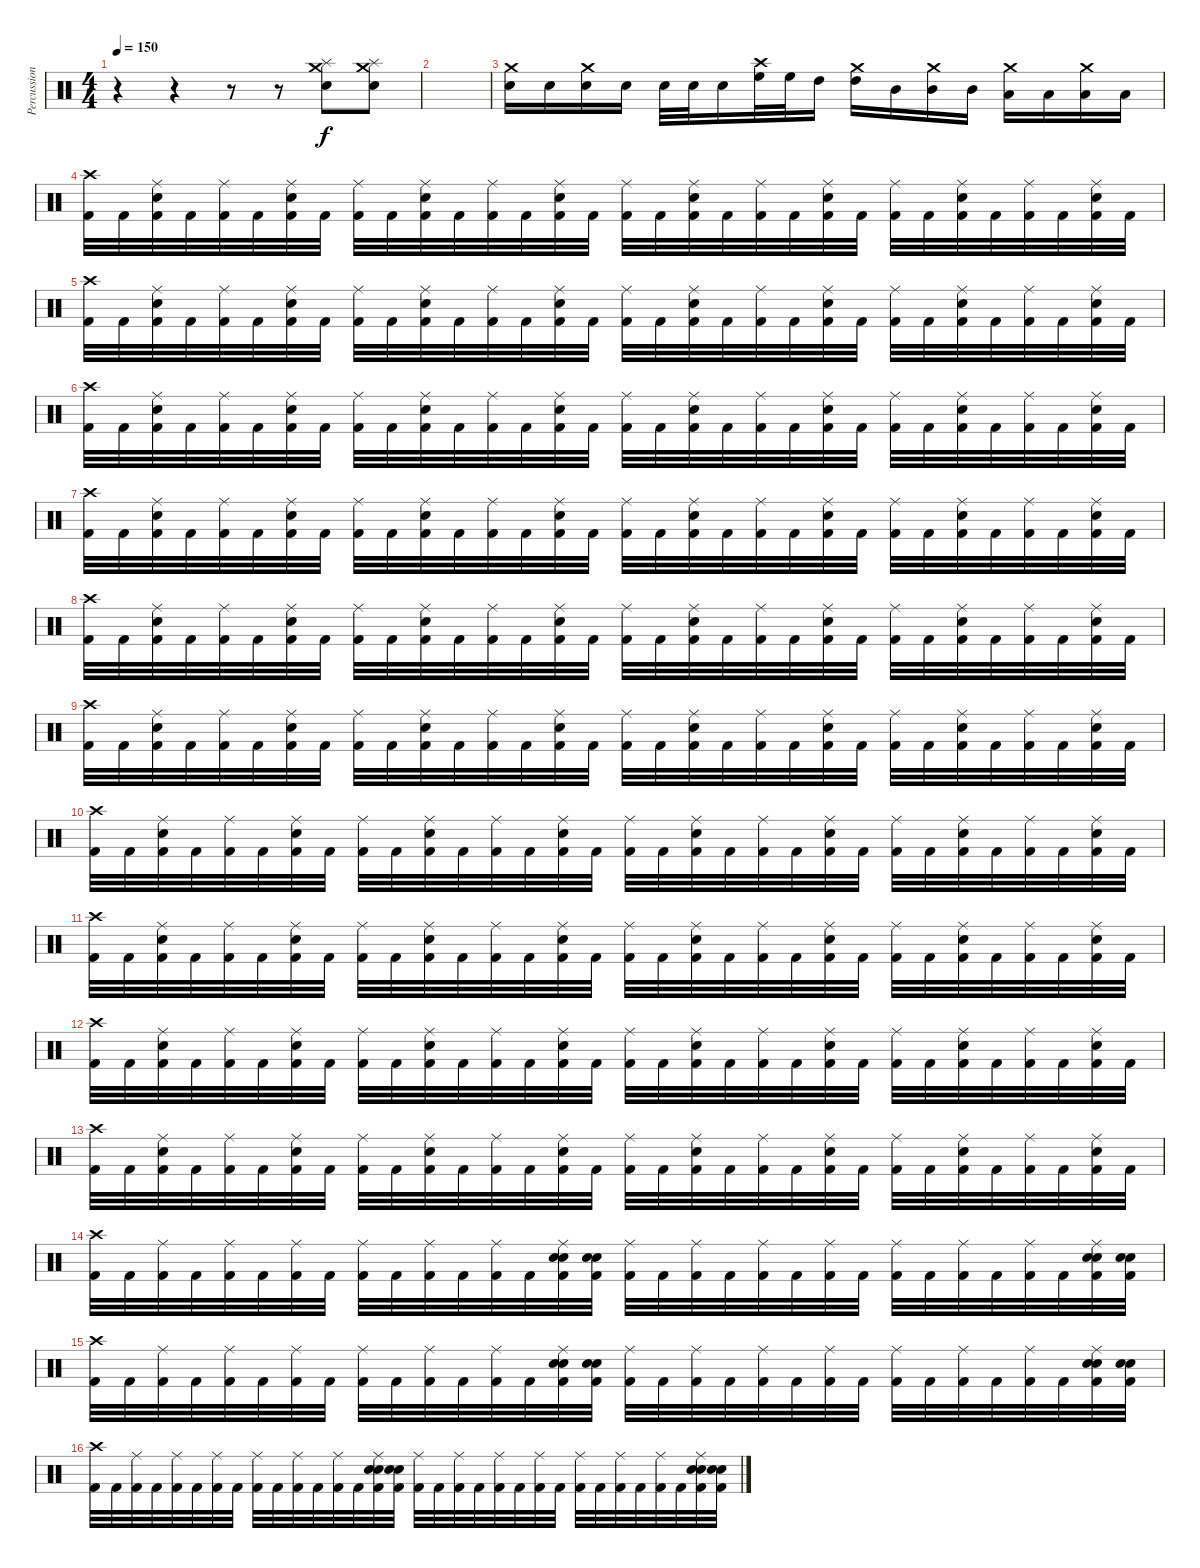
\track ("Percussions" "Percussion") {instrument percussion}
\staff {score}
\articulation defaults
\ts (4 4)
\tempo 150
\clef neutral
\ks c
r.4{dy f} r.4 r.8 r.8 ("Splash (hit)" "Crash medium (hit)" "Electric Snare (hit)").8 ("Splash (hit)" "Crash medium (hit)" "Electric Snare (hit)").8 |
|
("Electric Snare (hit)" "Crash medium (hit)").16 "Electric Snare (hit)".16 ("Electric Snare (hit)" "Crash medium (hit)").16 "Electric Snare (hit)".16 "Electric Snare (hit)".32 "Electric Snare (hit)".32 "Electric Snare (hit)".16 ("High Floor Tom (hit)" "Crash high (hit)").32 "High Floor Tom (hit)".32 "High Tom (hit)".16 ("High Tom (hit)" "Crash medium (hit)").16 "Mid Tom (hit)".16 ("Mid Tom (hit)" "Crash medium (hit)").16 "Mid Tom (hit)".16 ("Low Tom (hit)" "Crash medium (hit)").16 "Low Tom (hit)".16 ("Low Tom (hit)" "Crash medium (hit)").16 "Low Tom (hit)".16 |
("Crash high (hit)" "Kick (hit) 2").32 "Kick (hit) 2".32 ("Ride (middle)" "Electric Snare (hit)" "Kick (hit) 2").32 "Kick (hit) 2".32 ("Ride (middle)" "Kick (hit) 2").32 "Kick (hit) 2".32 ("Ride (middle)" "Electric Snare (hit)" "Kick (hit) 2").32 "Kick (hit) 2".32 ("Ride (middle)" "Kick (hit) 2").32 "Kick (hit) 2".32 ("Ride (middle)" "Electric Snare (hit)" "Kick (hit) 2").32 "Kick (hit) 2".32 ("Ride (middle)" "Kick (hit) 2").32 "Kick (hit) 2".32 ("Ride (middle)" "Electric Snare (hit)" "Kick (hit) 2").32 "Kick (hit) 2".32 ("Ride (middle)" "Kick (hit) 2").32 "Kick (hit) 2".32 ("Ride (middle)" "Electric Snare (hit)" "Kick (hit) 2").32 "Kick (hit) 2".32 ("Ride (middle)" "Kick (hit) 2").32 "Kick (hit) 2".32 ("Ride (middle)" "Electric Snare (hit)" "Kick (hit) 2").32 "Kick (hit) 2".32 ("Ride (middle)" "Kick (hit) 2").32 "Kick (hit) 2".32 ("Ride (middle)" "Electric Snare (hit)" "Kick (hit) 2").32 "Kick (hit) 2".32 ("Ride (middle)" "Kick (hit) 2").32 "Kick (hit) 2".32 ("Ride (middle)" "Electric Snare (hit)" "Kick (hit) 2").32 "Kick (hit) 2".32 |
("Crash high (hit)" "Kick (hit) 2").32 "Kick (hit) 2".32 ("Ride (middle)" "Electric Snare (hit)" "Kick (hit) 2").32 "Kick (hit) 2".32 ("Ride (middle)" "Kick (hit) 2").32 "Kick (hit) 2".32 ("Ride (middle)" "Electric Snare (hit)" "Kick (hit) 2").32 "Kick (hit) 2".32 ("Ride (middle)" "Kick (hit) 2").32 "Kick (hit) 2".32 ("Ride (middle)" "Electric Snare (hit)" "Kick (hit) 2").32 "Kick (hit) 2".32 ("Ride (middle)" "Kick (hit) 2").32 "Kick (hit) 2".32 ("Ride (middle)" "Electric Snare (hit)" "Kick (hit) 2").32 "Kick (hit) 2".32 ("Ride (middle)" "Kick (hit) 2").32 "Kick (hit) 2".32 ("Ride (middle)" "Electric Snare (hit)" "Kick (hit) 2").32 "Kick (hit) 2".32 ("Ride (middle)" "Kick (hit) 2").32 "Kick (hit) 2".32 ("Ride (middle)" "Electric Snare (hit)" "Kick (hit) 2").32 "Kick (hit) 2".32 ("Ride (middle)" "Kick (hit) 2").32 "Kick (hit) 2".32 ("Ride (middle)" "Electric Snare (hit)" "Kick (hit) 2").32 "Kick (hit) 2".32 ("Ride (middle)" "Kick (hit) 2").32 "Kick (hit) 2".32 ("Ride (middle)" "Electric Snare (hit)" "Kick (hit) 2").32 "Kick (hit) 2".32 |
("Crash high (hit)" "Kick (hit) 2").32 "Kick (hit) 2".32 ("Ride (middle)" "Electric Snare (hit)" "Kick (hit) 2").32 "Kick (hit) 2".32 ("Ride (middle)" "Kick (hit) 2").32 "Kick (hit) 2".32 ("Ride (middle)" "Electric Snare (hit)" "Kick (hit) 2").32 "Kick (hit) 2".32 ("Ride (middle)" "Kick (hit) 2").32 "Kick (hit) 2".32 ("Ride (middle)" "Electric Snare (hit)" "Kick (hit) 2").32 "Kick (hit) 2".32 ("Ride (middle)" "Kick (hit) 2").32 "Kick (hit) 2".32 ("Ride (middle)" "Electric Snare (hit)" "Kick (hit) 2").32 "Kick (hit) 2".32 ("Ride (middle)" "Kick (hit) 2").32 "Kick (hit) 2".32 ("Ride (middle)" "Electric Snare (hit)" "Kick (hit) 2").32 "Kick (hit) 2".32 ("Ride (middle)" "Kick (hit) 2").32 "Kick (hit) 2".32 ("Ride (middle)" "Electric Snare (hit)" "Kick (hit) 2").32 "Kick (hit) 2".32 ("Ride (middle)" "Kick (hit) 2").32 "Kick (hit) 2".32 ("Ride (middle)" "Electric Snare (hit)" "Kick (hit) 2").32 "Kick (hit) 2".32 ("Ride (middle)" "Kick (hit) 2").32 "Kick (hit) 2".32 ("Ride (middle)" "Electric Snare (hit)" "Kick (hit) 2").32 "Kick (hit) 2".32 |
("Crash high (hit)" "Kick (hit) 2").32 "Kick (hit) 2".32 ("Ride (middle)" "Electric Snare (hit)" "Kick (hit) 2").32 "Kick (hit) 2".32 ("Ride (middle)" "Kick (hit) 2").32 "Kick (hit) 2".32 ("Ride (middle)" "Electric Snare (hit)" "Kick (hit) 2").32 "Kick (hit) 2".32 ("Ride (middle)" "Kick (hit) 2").32 "Kick (hit) 2".32 ("Ride (middle)" "Electric Snare (hit)" "Kick (hit) 2").32 "Kick (hit) 2".32 ("Ride (middle)" "Kick (hit) 2").32 "Kick (hit) 2".32 ("Ride (middle)" "Electric Snare (hit)" "Kick (hit) 2").32 "Kick (hit) 2".32 ("Ride (middle)" "Kick (hit) 2").32 "Kick (hit) 2".32 ("Ride (middle)" "Electric Snare (hit)" "Kick (hit) 2").32 "Kick (hit) 2".32 ("Ride (middle)" "Kick (hit) 2").32 "Kick (hit) 2".32 ("Ride (middle)" "Electric Snare (hit)" "Kick (hit) 2").32 "Kick (hit) 2".32 ("Ride (middle)" "Kick (hit) 2").32 "Kick (hit) 2".32 ("Ride (middle)" "Electric Snare (hit)" "Kick (hit) 2").32 "Kick (hit) 2".32 ("Ride (middle)" "Kick (hit) 2").32 "Kick (hit) 2".32 ("Ride (middle)" "Electric Snare (hit)" "Kick (hit) 2").32 "Kick (hit) 2".32 |
("Crash high (hit)" "Kick (hit) 2").32 "Kick (hit) 2".32 ("Ride (middle)" "Electric Snare (hit)" "Kick (hit) 2").32 "Kick (hit) 2".32 ("Ride (middle)" "Kick (hit) 2").32 "Kick (hit) 2".32 ("Ride (middle)" "Electric Snare (hit)" "Kick (hit) 2").32 "Kick (hit) 2".32 ("Ride (middle)" "Kick (hit) 2").32 "Kick (hit) 2".32 ("Ride (middle)" "Electric Snare (hit)" "Kick (hit) 2").32 "Kick (hit) 2".32 ("Ride (middle)" "Kick (hit) 2").32 "Kick (hit) 2".32 ("Ride (middle)" "Electric Snare (hit)" "Kick (hit) 2").32 "Kick (hit) 2".32 ("Ride (middle)" "Kick (hit) 2").32 "Kick (hit) 2".32 ("Ride (middle)" "Electric Snare (hit)" "Kick (hit) 2").32 "Kick (hit) 2".32 ("Ride (middle)" "Kick (hit) 2").32 "Kick (hit) 2".32 ("Ride (middle)" "Electric Snare (hit)" "Kick (hit) 2").32 "Kick (hit) 2".32 ("Ride (middle)" "Kick (hit) 2").32 "Kick (hit) 2".32 ("Ride (middle)" "Electric Snare (hit)" "Kick (hit) 2").32 "Kick (hit) 2".32 ("Ride (middle)" "Kick (hit) 2").32 "Kick (hit) 2".32 ("Ride (middle)" "Electric Snare (hit)" "Kick (hit) 2").32 "Kick (hit) 2".32 |
("Crash high (hit)" "Kick (hit) 2").32 "Kick (hit) 2".32 ("Ride (middle)" "Electric Snare (hit)" "Kick (hit) 2").32 "Kick (hit) 2".32 ("Ride (middle)" "Kick (hit) 2").32 "Kick (hit) 2".32 ("Ride (middle)" "Electric Snare (hit)" "Kick (hit) 2").32 "Kick (hit) 2".32 ("Ride (middle)" "Kick (hit) 2").32 "Kick (hit) 2".32 ("Ride (middle)" "Electric Snare (hit)" "Kick (hit) 2").32 "Kick (hit) 2".32 ("Ride (middle)" "Kick (hit) 2").32 "Kick (hit) 2".32 ("Ride (middle)" "Electric Snare (hit)" "Kick (hit) 2").32 "Kick (hit) 2".32 ("Ride (middle)" "Kick (hit) 2").32 "Kick (hit) 2".32 ("Ride (middle)" "Electric Snare (hit)" "Kick (hit) 2").32 "Kick (hit) 2".32 ("Ride (middle)" "Kick (hit) 2").32 "Kick (hit) 2".32 ("Ride (middle)" "Electric Snare (hit)" "Kick (hit) 2").32 "Kick (hit) 2".32 ("Ride (middle)" "Kick (hit) 2").32 "Kick (hit) 2".32 ("Ride (middle)" "Electric Snare (hit)" "Kick (hit) 2").32 "Kick (hit) 2".32 ("Ride (middle)" "Kick (hit) 2").32 "Kick (hit) 2".32 ("Ride (middle)" "Electric Snare (hit)" "Kick (hit) 2").32 "Kick (hit) 2".32 |
("Crash high (hit)" "Kick (hit) 2").32 "Kick (hit) 2".32 ("Ride (middle)" "Electric Snare (hit)" "Kick (hit) 2").32 "Kick (hit) 2".32 ("Ride (middle)" "Kick (hit) 2").32 "Kick (hit) 2".32 ("Ride (middle)" "Electric Snare (hit)" "Kick (hit) 2").32 "Kick (hit) 2".32 ("Ride (middle)" "Kick (hit) 2").32 "Kick (hit) 2".32 ("Ride (middle)" "Electric Snare (hit)" "Kick (hit) 2").32 "Kick (hit) 2".32 ("Ride (middle)" "Kick (hit) 2").32 "Kick (hit) 2".32 ("Ride (middle)" "Electric Snare (hit)" "Kick (hit) 2").32 "Kick (hit) 2".32 ("Ride (middle)" "Kick (hit) 2").32 "Kick (hit) 2".32 ("Ride (middle)" "Electric Snare (hit)" "Kick (hit) 2").32 "Kick (hit) 2".32 ("Ride (middle)" "Kick (hit) 2").32 "Kick (hit) 2".32 ("Ride (middle)" "Electric Snare (hit)" "Kick (hit) 2").32 "Kick (hit) 2".32 ("Ride (middle)" "Kick (hit) 2").32 "Kick (hit) 2".32 ("Ride (middle)" "Electric Snare (hit)" "Kick (hit) 2").32 "Kick (hit) 2".32 ("Ride (middle)" "Kick (hit) 2").32 "Kick (hit) 2".32 ("Ride (middle)" "Electric Snare (hit)" "Kick (hit) 2").32 "Kick (hit) 2".32 |
("Crash high (hit)" "Kick (hit) 2").32 "Kick (hit) 2".32 ("Ride (middle)" "Electric Snare (hit)" "Kick (hit) 2").32 "Kick (hit) 2".32 ("Ride (middle)" "Kick (hit) 2").32 "Kick (hit) 2".32 ("Ride (middle)" "Electric Snare (hit)" "Kick (hit) 2").32 "Kick (hit) 2".32 ("Ride (middle)" "Kick (hit) 2").32 "Kick (hit) 2".32 ("Ride (middle)" "Electric Snare (hit)" "Kick (hit) 2").32 "Kick (hit) 2".32 ("Ride (middle)" "Kick (hit) 2").32 "Kick (hit) 2".32 ("Ride (middle)" "Electric Snare (hit)" "Kick (hit) 2").32 "Kick (hit) 2".32 ("Ride (middle)" "Kick (hit) 2").32 "Kick (hit) 2".32 ("Ride (middle)" "Electric Snare (hit)" "Kick (hit) 2").32 "Kick (hit) 2".32 ("Ride (middle)" "Kick (hit) 2").32 "Kick (hit) 2".32 ("Ride (middle)" "Electric Snare (hit)" "Kick (hit) 2").32 "Kick (hit) 2".32 ("Ride (middle)" "Kick (hit) 2").32 "Kick (hit) 2".32 ("Ride (middle)" "Electric Snare (hit)" "Kick (hit) 2").32 "Kick (hit) 2".32 ("Ride (middle)" "Kick (hit) 2").32 "Kick (hit) 2".32 ("Ride (middle)" "Electric Snare (hit)" "Kick (hit) 2").32 "Kick (hit) 2".32 |
("Crash high (hit)" "Kick (hit) 2").32 "Kick (hit) 2".32 ("Ride (middle)" "Electric Snare (hit)" "Kick (hit) 2").32 "Kick (hit) 2".32 ("Ride (middle)" "Kick (hit) 2").32 "Kick (hit) 2".32 ("Ride (middle)" "Electric Snare (hit)" "Kick (hit) 2").32 "Kick (hit) 2".32 ("Ride (middle)" "Kick (hit) 2").32 "Kick (hit) 2".32 ("Ride (middle)" "Electric Snare (hit)" "Kick (hit) 2").32 "Kick (hit) 2".32 ("Ride (middle)" "Kick (hit) 2").32 "Kick (hit) 2".32 ("Ride (middle)" "Electric Snare (hit)" "Kick (hit) 2").32 "Kick (hit) 2".32 ("Ride (middle)" "Kick (hit) 2").32 "Kick (hit) 2".32 ("Ride (middle)" "Electric Snare (hit)" "Kick (hit) 2").32 "Kick (hit) 2".32 ("Ride (middle)" "Kick (hit) 2").32 "Kick (hit) 2".32 ("Ride (middle)" "Electric Snare (hit)" "Kick (hit) 2").32 "Kick (hit) 2".32 ("Ride (middle)" "Kick (hit) 2").32 "Kick (hit) 2".32 ("Ride (middle)" "Electric Snare (hit)" "Kick (hit) 2").32 "Kick (hit) 2".32 ("Ride (middle)" "Kick (hit) 2").32 "Kick (hit) 2".32 ("Ride (middle)" "Electric Snare (hit)" "Kick (hit) 2").32 "Kick (hit) 2".32 |
("Crash high (hit)" "Kick (hit) 2").32 "Kick (hit) 2".32 ("Ride (middle)" "Electric Snare (hit)" "Kick (hit) 2").32 "Kick (hit) 2".32 ("Ride (middle)" "Kick (hit) 2").32 "Kick (hit) 2".32 ("Ride (middle)" "Electric Snare (hit)" "Kick (hit) 2").32 "Kick (hit) 2".32 ("Ride (middle)" "Kick (hit) 2").32 "Kick (hit) 2".32 ("Ride (middle)" "Electric Snare (hit)" "Kick (hit) 2").32 "Kick (hit) 2".32 ("Ride (middle)" "Kick (hit) 2").32 "Kick (hit) 2".32 ("Ride (middle)" "Electric Snare (hit)" "Kick (hit) 2").32 "Kick (hit) 2".32 ("Ride (middle)" "Kick (hit) 2").32 "Kick (hit) 2".32 ("Ride (middle)" "Electric Snare (hit)" "Kick (hit) 2").32 "Kick (hit) 2".32 ("Ride (middle)" "Kick (hit) 2").32 "Kick (hit) 2".32 ("Ride (middle)" "Electric Snare (hit)" "Kick (hit) 2").32 "Kick (hit) 2".32 ("Ride (middle)" "Kick (hit) 2").32 "Kick (hit) 2".32 ("Ride (middle)" "Electric Snare (hit)" "Kick (hit) 2").32 "Kick (hit) 2".32 ("Ride (middle)" "Kick (hit) 2").32 "Kick (hit) 2".32 ("Ride (middle)" "Electric Snare (hit)" "Kick (hit) 2").32 "Kick (hit) 2".32 |
("Crash high (hit)" "Kick (hit) 2").32 "Kick (hit) 2".32 ("Ride (middle)" "Kick (hit) 2").32 "Kick (hit) 2".32 ("Ride (middle)" "Kick (hit) 2").32 "Kick (hit) 2".32 ("Ride (middle)" "Kick (hit) 2").32 "Kick (hit) 2".32 ("Ride (middle)" "Kick (hit) 2").32 "Kick (hit) 2".32 ("Ride (middle)" "Kick (hit) 2").32 "Kick (hit) 2".32 ("Ride (middle)" "Kick (hit) 2").32 "Kick (hit) 2".32 ("Ride (middle)" "Electric Snare (hit)" "Electric Snare (hit)" "Kick (hit) 2").32 ("Electric Snare (hit)" "Electric Snare (hit)" "Kick (hit) 2").32 ("Ride (middle)" "Kick (hit) 2").32 "Kick (hit) 2".32 ("Ride (middle)" "Kick (hit) 2").32 "Kick (hit) 2".32 ("Ride (middle)" "Kick (hit) 2").32 "Kick (hit) 2".32 ("Ride (middle)" "Kick (hit) 2").32 "Kick (hit) 2".32 ("Ride (middle)" "Kick (hit) 2").32 "Kick (hit) 2".32 ("Ride (middle)" "Kick (hit) 2").32 "Kick (hit) 2".32 ("Ride (middle)" "Kick (hit) 2").32 "Kick (hit) 2".32 ("Ride (middle)" "Electric Snare (hit)" "Electric Snare (hit)" "Kick (hit) 2").32 ("Electric Snare (hit)" "Electric Snare (hit)" "Kick (hit) 2").32 |
("Crash high (hit)" "Kick (hit) 2").32 "Kick (hit) 2".32 ("Ride (middle)" "Kick (hit) 2").32 "Kick (hit) 2".32 ("Ride (middle)" "Kick (hit) 2").32 "Kick (hit) 2".32 ("Ride (middle)" "Kick (hit) 2").32 "Kick (hit) 2".32 ("Ride (middle)" "Kick (hit) 2").32 "Kick (hit) 2".32 ("Ride (middle)" "Kick (hit) 2").32 "Kick (hit) 2".32 ("Ride (middle)" "Kick (hit) 2").32 "Kick (hit) 2".32 ("Ride (middle)" "Electric Snare (hit)" "Electric Snare (hit)" "Kick (hit) 2").32 ("Electric Snare (hit)" "Electric Snare (hit)" "Kick (hit) 2").32 ("Ride (middle)" "Kick (hit) 2").32 "Kick (hit) 2".32 ("Ride (middle)" "Kick (hit) 2").32 "Kick (hit) 2".32 ("Ride (middle)" "Kick (hit) 2").32 "Kick (hit) 2".32 ("Ride (middle)" "Kick (hit) 2").32 "Kick (hit) 2".32 ("Ride (middle)" "Kick (hit) 2").32 "Kick (hit) 2".32 ("Ride (middle)" "Kick (hit) 2").32 "Kick (hit) 2".32 ("Ride (middle)" "Kick (hit) 2").32 "Kick (hit) 2".32 ("Ride (middle)" "Electric Snare (hit)" "Electric Snare (hit)" "Kick (hit) 2").32 ("Electric Snare (hit)" "Electric Snare (hit)" "Kick (hit) 2").32 |
("Crash high (hit)" "Kick (hit) 2").32 "Kick (hit) 2".32 ("Ride (middle)" "Kick (hit) 2").32 "Kick (hit) 2".32 ("Ride (middle)" "Kick (hit) 2").32 "Kick (hit) 2".32 ("Ride (middle)" "Kick (hit) 2").32 "Kick (hit) 2".32 ("Ride (middle)" "Kick (hit) 2").32 "Kick (hit) 2".32 ("Ride (middle)" "Kick (hit) 2").32 "Kick (hit) 2".32 ("Ride (middle)" "Kick (hit) 2").32 "Kick (hit) 2".32 ("Ride (middle)" "Electric Snare (hit)" "Electric Snare (hit)" "Kick (hit) 2").32 ("Electric Snare (hit)" "Electric Snare (hit)" "Kick (hit) 2").32 ("Ride (middle)" "Kick (hit) 2").32 "Kick (hit) 2".32 ("Ride (middle)" "Kick (hit) 2").32 "Kick (hit) 2".32 ("Ride (middle)" "Kick (hit) 2").32 "Kick (hit) 2".32 ("Ride (middle)" "Kick (hit) 2").32 "Kick (hit) 2".32 ("Ride (middle)" "Kick (hit) 2").32 "Kick (hit) 2".32 ("Ride (middle)" "Kick (hit) 2").32 "Kick (hit) 2".32 ("Ride (middle)" "Kick (hit) 2").32 "Kick (hit) 2".32 ("Ride (middle)" "Electric Snare (hit)" "Electric Snare (hit)" "Kick (hit) 2").32 ("Electric Snare (hit)" "Electric Snare (hit)" "Kick (hit) 2").32
